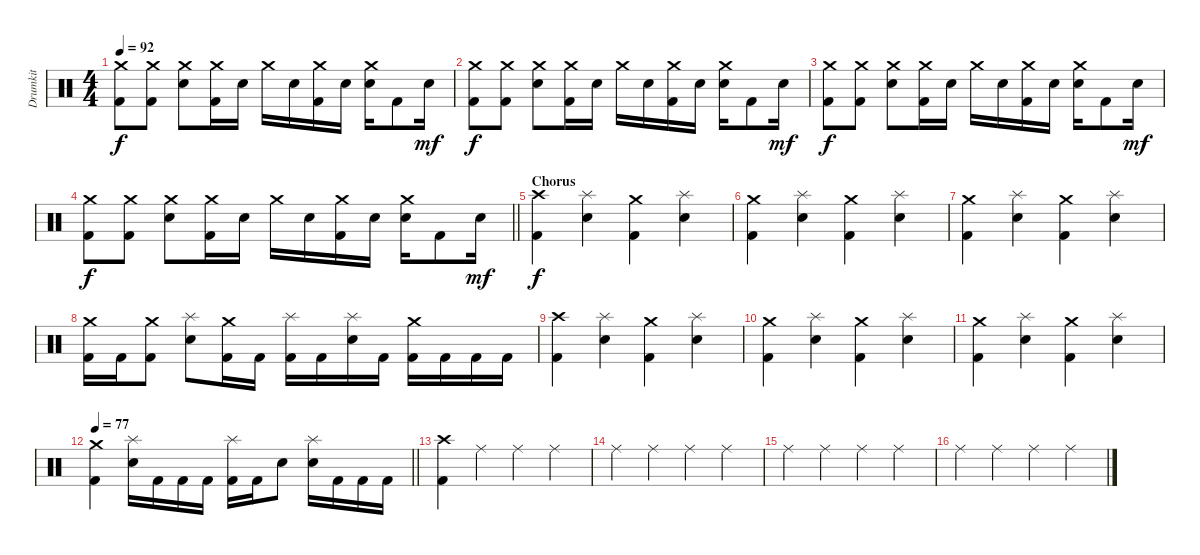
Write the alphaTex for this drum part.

\track ("Drumkit" "Drumkit") {instrument percussion}
\staff {score}
\articulation defaults
\ts (4 4)
\tempo 92
\clef neutral
\ks c
("Crash medium (hit)" "Kick (hit) 2").8{dy f} ("Crash medium (hit)" "Kick (hit) 2").8 ("Crash medium (hit)" "Snare (hit) 2").8 ("Crash medium (hit)" "Kick (hit) 2").16 "Snare (hit) 2".16 "Crash medium (hit)".16 "Snare (hit) 2".16 ("Crash medium (hit)" "Kick (hit) 2").16 "Snare (hit) 2".16 ("Crash medium (hit)" "Snare (hit) 2").16 "Kick (hit) 2".8 "Snare (hit) 2".16{dy mf} |
("Crash medium (hit)" "Kick (hit) 2").8{dy f} ("Crash medium (hit)" "Kick (hit) 2").8 ("Crash medium (hit)" "Snare (hit) 2").8 ("Crash medium (hit)" "Kick (hit) 2").16 "Snare (hit) 2".16 "Crash medium (hit)".16 "Snare (hit) 2".16 ("Crash medium (hit)" "Kick (hit) 2").16 "Snare (hit) 2".16 ("Crash medium (hit)" "Snare (hit) 2").16 "Kick (hit) 2".8 "Snare (hit) 2".16{dy mf} |
("Crash medium (hit)" "Kick (hit) 2").8{dy f} ("Crash medium (hit)" "Kick (hit) 2").8 ("Crash medium (hit)" "Snare (hit) 2").8 ("Crash medium (hit)" "Kick (hit) 2").16 "Snare (hit) 2".16 "Crash medium (hit)".16 "Snare (hit) 2".16 ("Crash medium (hit)" "Kick (hit) 2").16 "Snare (hit) 2".16 ("Crash medium (hit)" "Snare (hit) 2").16 "Kick (hit) 2".8 "Snare (hit) 2".16{dy mf} |
\barLineRight lightlight
("Crash medium (hit)" "Kick (hit) 2").8{dy f} ("Crash medium (hit)" "Kick (hit) 2").8 ("Crash medium (hit)" "Snare (hit) 2").8 ("Crash medium (hit)" "Kick (hit) 2").16 "Snare (hit) 2".16 "Crash medium (hit)".16 "Snare (hit) 2".16 ("Crash medium (hit)" "Kick (hit) 2").16 "Snare (hit) 2".16 ("Crash medium (hit)" "Snare (hit) 2").16 "Kick (hit) 2".8 "Snare (hit) 2".16{dy mf} |
\section ("" "Chorus")
("Crash high (hit)" "Kick (hit) 2").4{dy f} ("Splash (hit)" "Snare (hit) 2").4 ("Crash medium (hit)" "Kick (hit) 2").4 ("Splash (hit)" "Snare (hit) 2").4 |
("Crash medium (hit)" "Kick (hit) 2").4 ("Splash (hit)" "Snare (hit) 2").4 ("Crash medium (hit)" "Kick (hit) 2").4 ("Splash (hit)" "Snare (hit) 2").4 |
("Crash medium (hit)" "Kick (hit) 2").4 ("Splash (hit)" "Snare (hit) 2").4 ("Crash medium (hit)" "Kick (hit) 2").4 ("Splash (hit)" "Snare (hit) 2").4 |
("Crash medium (hit)" "Kick (hit) 2").16 "Kick (hit) 2".16 ("Crash medium (hit)" "Kick (hit) 2").8 ("Splash (hit)" "Snare (hit) 2").8 ("Crash medium (hit)" "Kick (hit) 2").16 "Kick (hit) 2".16 ("Splash (hit)" "Kick (hit) 2").16 "Kick (hit) 2".16 ("Splash (hit)" "Snare (hit) 2").16 "Kick (hit) 2".16 ("Crash medium (hit)" "Kick (hit) 2").16 "Kick (hit) 2".16 "Kick (hit) 2".16 "Kick (hit) 2".16 |
("Crash high (hit)" "Kick (hit) 2").4 ("Splash (hit)" "Snare (hit) 2").4 ("Crash medium (hit)" "Kick (hit) 2").4 ("Splash (hit)" "Snare (hit) 2").4 |
("Crash medium (hit)" "Kick (hit) 2").4 ("Splash (hit)" "Snare (hit) 2").4 ("Crash medium (hit)" "Kick (hit) 2").4 ("Splash (hit)" "Snare (hit) 2").4 |
("Crash medium (hit)" "Kick (hit) 2").4 ("Splash (hit)" "Snare (hit) 2").4 ("Crash medium (hit)" "Kick (hit) 2").4 ("Splash (hit)" "Snare (hit) 2").4 |
\tempo 77
\barLineRight lightlight
("Crash medium (hit)" "Kick (hit) 2").4 ("Splash (hit)" "Snare (hit) 2").16 "Kick (hit) 2".16 "Kick (hit) 2".16 "Kick (hit) 2".16 ("Splash (hit)" "Kick (hit) 2").16 "Kick (hit) 2".16 "Snare (hit) 2".8 ("Splash (hit)" "Snare (hit) 2").16 "Kick (hit) 2".16 "Kick (hit) 2".16 "Kick (hit) 2".16 |
("Crash high (hit)" "Kick (hit) 2").4 "Ride (middle)".4 "Ride (middle)".4 "Ride (middle)".4 |
"Ride (middle)".4 "Ride (middle)".4 "Ride (middle)".4 "Ride (middle)".4 |
"Ride (middle)".4 "Ride (middle)".4 "Ride (middle)".4 "Ride (middle)".4 |
"Ride (middle)".4 "Ride (middle)".4 "Ride (middle)".4 "Ride (middle)".4
